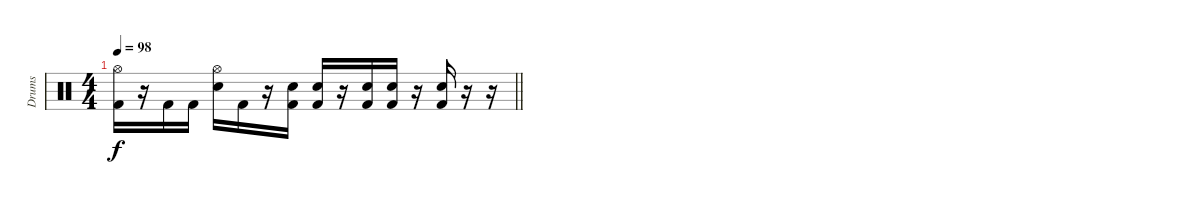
\track ("Drums" "Drums") {instrument percussion}
\staff {score}
\articulation defaults
\ts (4 4)
\tempo 98
\clef neutral
\barLineRight lightlight
\ks c
("Hi-Hat (open)" "Kick (hit) 2").16{dy f} r.16 "Kick (hit) 2".16 "Kick (hit) 2".16 ("Hi-Hat (open)" "Electric Snare (hit)").16 "Kick (hit) 2".16 r.16 ("Electric Snare (hit)" "Kick (hit) 2").16 ("Electric Snare (hit)" "Kick (hit) 2").16 r.16 ("Electric Snare (hit)" "Kick (hit) 2").16 ("Electric Snare (hit)" "Kick (hit) 2").16 r.16 ("Electric Snare (hit)" "Kick (hit) 2").16 r.16 r.16
